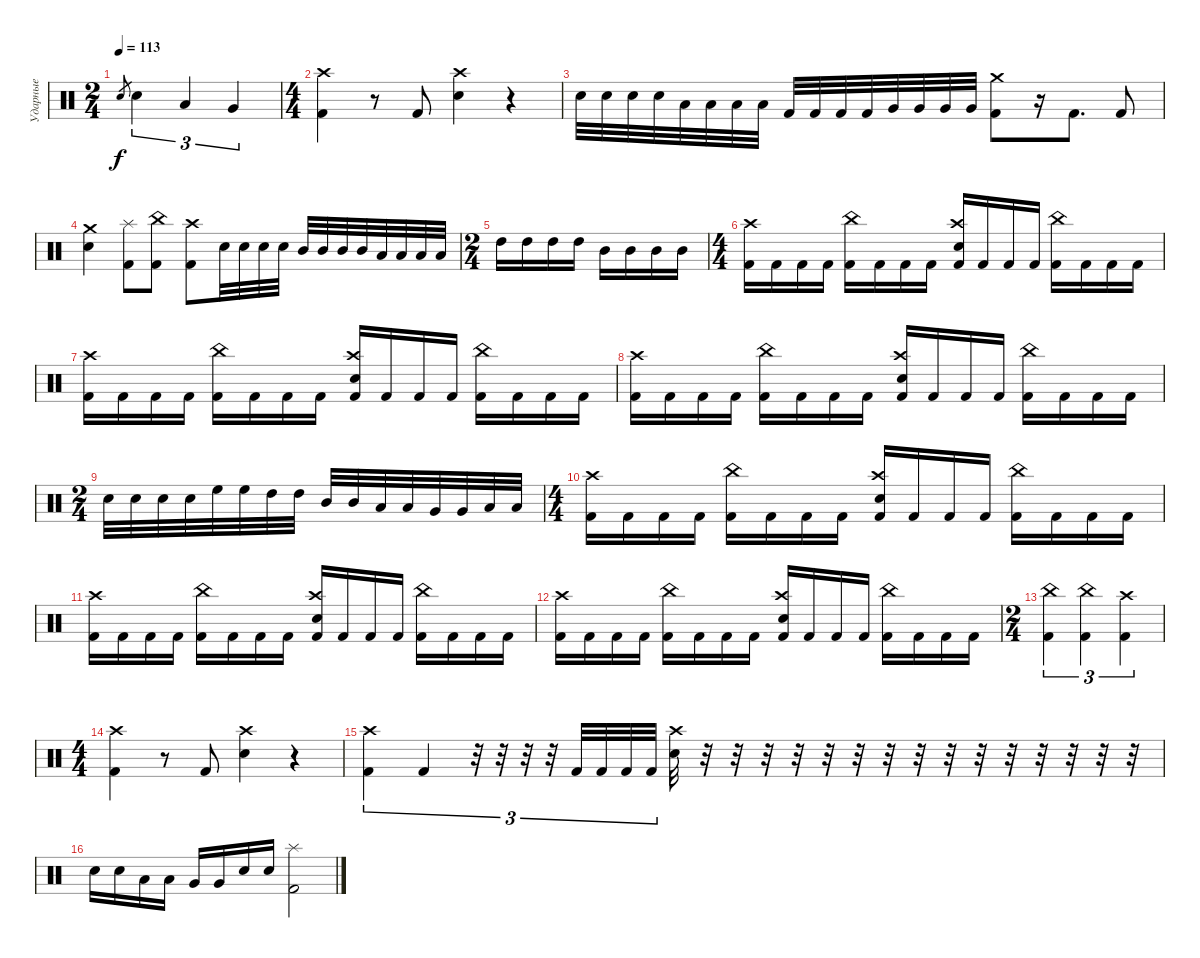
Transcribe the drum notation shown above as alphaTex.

\track ("Ударные" "Ударные") {instrument percussion}
\staff {score}
\articulation defaults
\ts (2 4)
\tempo 113
\clef neutral
\ks c "Electric Snare (hit)".8{gr dy f} "Electric Snare (hit)".4{tu (3 2)} "Low Tom (hit)".4{tu (3 2)} "Very Low Tom (hit)".4{tu (3 2)}
|
\ts (4 4)
("Crash high (hit)" "Kick (hit) 2").4 r.8 "Kick (hit) 2".8 ("Crash high (hit)" "Electric Snare (hit)").4 r.4 |
"Electric Snare (hit)".32 "Electric Snare (hit)".32 "Electric Snare (hit)".32 "Electric Snare (hit)".32 "Low Tom (hit)".32 "Low Tom (hit)".32 "Low Tom (hit)".32 "Low Tom (hit)".32 "Kick (hit) 2".32 "Kick (hit) 2".32 "Kick (hit) 2".32 "Kick (hit) 2".32 "Very Low Tom (hit)".32 "Very Low Tom (hit)".32 "Very Low Tom (hit)".32 "Very Low Tom (hit)".32 ("Crash medium (hit)" "Kick (hit) 2").8 r.16 "Kick (hit) 2".8{d} "Kick (hit) 2".8 |
("Crash medium (hit)" "Electric Snare (hit)").4 ("Splash (hit)" "Kick (hit) 2").8 ("China (hit)" "Kick (hit) 2").8 ("Crash high (hit)" "Kick (hit) 2").8 "Electric Snare (hit)".32 "Electric Snare (hit)".32 "Electric Snare (hit)".32 "Electric Snare (hit)".32 "Mid Tom (hit)".32 "Mid Tom (hit)".32 "Mid Tom (hit)".32 "Mid Tom (hit)".32 "Low Tom (hit)".32 "Low Tom (hit)".32 "Low Tom (hit)".32 "Low Tom (hit)".32 |
\ts (2 4)
"High Tom (hit)".16 "High Tom (hit)".16 "High Tom (hit)".16 "High Tom (hit)".16 "Mid Tom (hit)".16 "Mid Tom (hit)".16 "Mid Tom (hit)".16 "Mid Tom (hit)".16 |
\ts (4 4)
("Crash high (hit)" "Kick (hit) 2").16 "Kick (hit) 2".16 "Kick (hit) 2".16 "Kick (hit) 2".16 ("China (hit)" "Kick (hit) 2").16 "Kick (hit) 2".16 "Kick (hit) 2".16 "Kick (hit) 2".16 ("Crash high (hit)" "Electric Snare (hit)" "Kick (hit) 2").16 "Kick (hit) 2".16 "Kick (hit) 2".16 "Kick (hit) 2".16 ("China (hit)" "Kick (hit) 2").16 "Kick (hit) 2".16 "Kick (hit) 2".16 "Kick (hit) 2".16 |
("Crash high (hit)" "Kick (hit) 2").16 "Kick (hit) 2".16 "Kick (hit) 2".16 "Kick (hit) 2".16 ("China (hit)" "Kick (hit) 2").16 "Kick (hit) 2".16 "Kick (hit) 2".16 "Kick (hit) 2".16 ("Crash high (hit)" "Electric Snare (hit)" "Kick (hit) 2").16 "Kick (hit) 2".16 "Kick (hit) 2".16 "Kick (hit) 2".16 ("China (hit)" "Kick (hit) 2").16 "Kick (hit) 2".16 "Kick (hit) 2".16 "Kick (hit) 2".16 |
("Crash high (hit)" "Kick (hit) 2").16 "Kick (hit) 2".16 "Kick (hit) 2".16 "Kick (hit) 2".16 ("China (hit)" "Kick (hit) 2").16 "Kick (hit) 2".16 "Kick (hit) 2".16 "Kick (hit) 2".16 ("Crash high (hit)" "Electric Snare (hit)" "Kick (hit) 2").16 "Kick (hit) 2".16 "Kick (hit) 2".16 "Kick (hit) 2".16 ("China (hit)" "Kick (hit) 2").16 "Kick (hit) 2".16 "Kick (hit) 2".16 "Kick (hit) 2".16 |
\ts (2 4)
"Electric Snare (hit)".32 "Electric Snare (hit)".32 "Electric Snare (hit)".32 "Electric Snare (hit)".32 "High Floor Tom (hit)".32 "High Floor Tom (hit)".32 "High Tom (hit)".32 "High Tom (hit)".32 "Mid Tom (hit)".32 "Mid Tom (hit)".32 "Low Tom (hit)".32 "Low Tom (hit)".32 "Very Low Tom (hit)".32 "Very Low Tom (hit)".32 "Low Floor Tom (hit)".32 "Low Floor Tom (hit)".32 |
\ts (4 4)
("Crash high (hit)" "Kick (hit) 2").16 "Kick (hit) 2".16 "Kick (hit) 2".16 "Kick (hit) 2".16 ("China (hit)" "Kick (hit) 2").16 "Kick (hit) 2".16 "Kick (hit) 2".16 "Kick (hit) 2".16 ("Crash high (hit)" "Electric Snare (hit)" "Kick (hit) 2").16 "Kick (hit) 2".16 "Kick (hit) 2".16 "Kick (hit) 2".16 ("China (hit)" "Kick (hit) 2").16 "Kick (hit) 2".16 "Kick (hit) 2".16 "Kick (hit) 2".16 |
("Crash high (hit)" "Kick (hit) 2").16 "Kick (hit) 2".16 "Kick (hit) 2".16 "Kick (hit) 2".16 ("China (hit)" "Kick (hit) 2").16 "Kick (hit) 2".16 "Kick (hit) 2".16 "Kick (hit) 2".16 ("Crash high (hit)" "Electric Snare (hit)" "Kick (hit) 2").16 "Kick (hit) 2".16 "Kick (hit) 2".16 "Kick (hit) 2".16 ("China (hit)" "Kick (hit) 2").16 "Kick (hit) 2".16 "Kick (hit) 2".16 "Kick (hit) 2".16 |
("Crash high (hit)" "Kick (hit) 2").16 "Kick (hit) 2".16 "Kick (hit) 2".16 "Kick (hit) 2".16 ("China (hit)" "Kick (hit) 2").16 "Kick (hit) 2".16 "Kick (hit) 2".16 "Kick (hit) 2".16 ("Crash high (hit)" "Electric Snare (hit)" "Kick (hit) 2").16 "Kick (hit) 2".16 "Kick (hit) 2".16 "Kick (hit) 2".16 ("China (hit)" "Kick (hit) 2").16 "Kick (hit) 2".16 "Kick (hit) 2".16 "Kick (hit) 2".16 |
\ts (2 4)
("China (hit)" "Kick (hit) 2").4{tu (3 2)} ("China (hit)" "Kick (hit) 2").4{tu (3 2)} ("Crash high (hit)" "Kick (hit) 2").4{tu (3 2)} |
\ts (4 4)
("Crash high (hit)" "Kick (hit) 2").4 r.8 "Kick (hit) 2".8 ("Crash high (hit)" "Electric Snare (hit)").4 r.4 |
("Crash high (hit)" "Kick (hit) 2").4{tu (3 2)} "Kick (hit) 2".4{tu (3 2)} r.32{tu (3 2)} r.32{tu (3 2)} r.32{tu (3 2)} r.32{tu (3 2)} "Kick (hit) 2".32{tu (3 2)} "Kick (hit) 2".32{tu (3 2)} "Kick (hit) 2".32{tu (3 2)} "Kick (hit) 2".32{tu (3 2)} ("Crash high (hit)" "Electric Snare (hit)").32 r.32 r.32 r.32 r.32 r.32 r.32 r.32 r.32 r.32 r.32 r.32 r.32 r.32 r.32 r.32 |
"Electric Snare (hit)".16 "Electric Snare (hit)".16 "Low Tom (hit)".16 "Low Tom (hit)".16 "Very Low Tom (hit)".16 "Very Low Tom (hit)".16 "Electric Snare (hit)".16 "Electric Snare (hit)".16 ("Splash (hit)" "Kick (hit) 2").2
